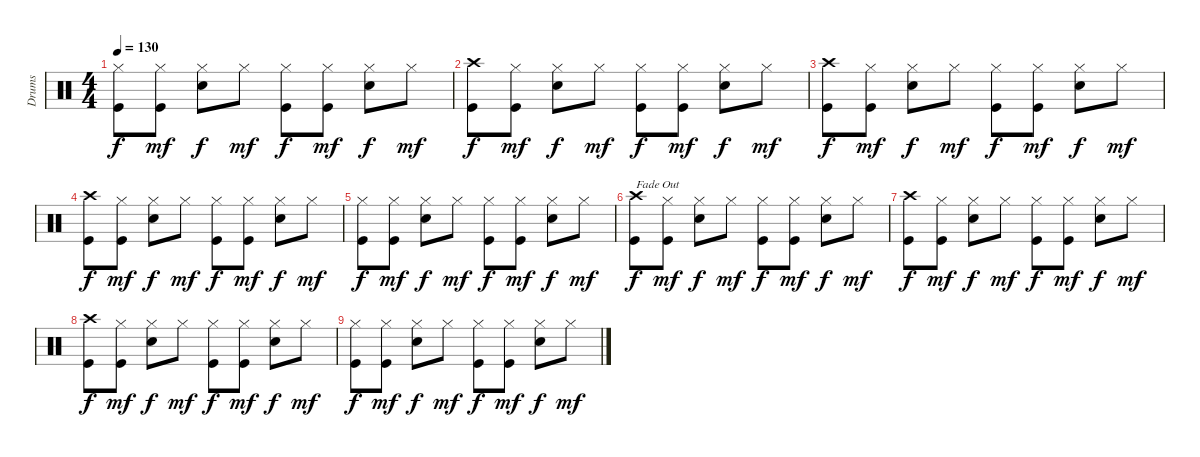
\track ("Drums" "Drums") {instrument percussion}
\staff {score}
\articulation defaults
\ts (4 4)
\tempo 130
\clef neutral
\ks c
("Hi-Hat (closed)" "Kick (hit)").8{dy f} ("Hi-Hat (closed)" "Kick (hit)").8{dy mf} ("Hi-Hat (closed)" "Snare (hit) 2").8{dy f} "Hi-Hat (closed)".8{dy mf} ("Hi-Hat (closed)" "Kick (hit)").8{dy f} ("Hi-Hat (closed)" "Kick (hit)").8{dy mf} ("Hi-Hat (closed)" "Snare (hit) 2").8{dy f} "Hi-Hat (closed)".8{dy mf} |
("Crash high (hit)" "Kick (hit)").8{dy f} ("Hi-Hat (closed)" "Kick (hit)").8{dy mf} ("Hi-Hat (closed)" "Snare (hit) 2").8{dy f} "Hi-Hat (closed)".8{dy mf} ("Hi-Hat (closed)" "Kick (hit)").8{dy f} ("Hi-Hat (closed)" "Kick (hit)").8{dy mf} ("Hi-Hat (closed)" "Snare (hit) 2").8{dy f} "Hi-Hat (closed)".8{dy mf} |
("Crash high (hit)" "Kick (hit)").8{dy f} ("Hi-Hat (closed)" "Kick (hit)").8{dy mf} ("Hi-Hat (closed)" "Snare (hit) 2").8{dy f} "Hi-Hat (closed)".8{dy mf} ("Hi-Hat (closed)" "Kick (hit)").8{dy f} ("Hi-Hat (closed)" "Kick (hit)").8{dy mf} ("Hi-Hat (closed)" "Snare (hit) 2").8{dy f} "Hi-Hat (closed)".8{dy mf} |
("Crash high (hit)" "Kick (hit)").8{dy f} ("Hi-Hat (closed)" "Kick (hit)").8{dy mf} ("Hi-Hat (closed)" "Snare (hit) 2").8{dy f} "Hi-Hat (closed)".8{dy mf} ("Hi-Hat (closed)" "Kick (hit)").8{dy f} ("Hi-Hat (closed)" "Kick (hit)").8{dy mf} ("Hi-Hat (closed)" "Snare (hit) 2").8{dy f} "Hi-Hat (closed)".8{dy mf} |
("Hi-Hat (closed)" "Kick (hit)").8{dy f} ("Hi-Hat (closed)" "Kick (hit)").8{dy mf} ("Hi-Hat (closed)" "Snare (hit) 2").8{dy f} "Hi-Hat (closed)".8{dy mf} ("Hi-Hat (closed)" "Kick (hit)").8{dy f} ("Hi-Hat (closed)" "Kick (hit)").8{dy mf} ("Hi-Hat (closed)" "Snare (hit) 2").8{dy f} "Hi-Hat (closed)".8{dy mf} |
("Crash high (hit)" "Kick (hit)").8{txt "Fade Out" dy f} ("Hi-Hat (closed)" "Kick (hit)").8{dy mf} ("Hi-Hat (closed)" "Snare (hit) 2").8{dy f} "Hi-Hat (closed)".8{dy mf} ("Hi-Hat (closed)" "Kick (hit)").8{dy f} ("Hi-Hat (closed)" "Kick (hit)").8{dy mf} ("Hi-Hat (closed)" "Snare (hit) 2").8{dy f} "Hi-Hat (closed)".8{dy mf} |
("Crash high (hit)" "Kick (hit)").8{dy f} ("Hi-Hat (closed)" "Kick (hit)").8{dy mf} ("Hi-Hat (closed)" "Snare (hit) 2").8{dy f} "Hi-Hat (closed)".8{dy mf} ("Hi-Hat (closed)" "Kick (hit)").8{dy f} ("Hi-Hat (closed)" "Kick (hit)").8{dy mf} ("Hi-Hat (closed)" "Snare (hit) 2").8{dy f} "Hi-Hat (closed)".8{dy mf} |
("Crash high (hit)" "Kick (hit)").8{dy f} ("Hi-Hat (closed)" "Kick (hit)").8{dy mf} ("Hi-Hat (closed)" "Snare (hit) 2").8{dy f} "Hi-Hat (closed)".8{dy mf} ("Hi-Hat (closed)" "Kick (hit)").8{dy f} ("Hi-Hat (closed)" "Kick (hit)").8{dy mf} ("Hi-Hat (closed)" "Snare (hit) 2").8{dy f} "Hi-Hat (closed)".8{dy mf} |
("Hi-Hat (closed)" "Kick (hit)").8{dy f} ("Hi-Hat (closed)" "Kick (hit)").8{dy mf} ("Hi-Hat (closed)" "Snare (hit) 2").8{dy f} "Hi-Hat (closed)".8{dy mf} ("Hi-Hat (closed)" "Kick (hit)").8{dy f} ("Hi-Hat (closed)" "Kick (hit)").8{dy mf} ("Hi-Hat (closed)" "Snare (hit) 2").8{dy f} "Hi-Hat (closed)".8{dy mf}
